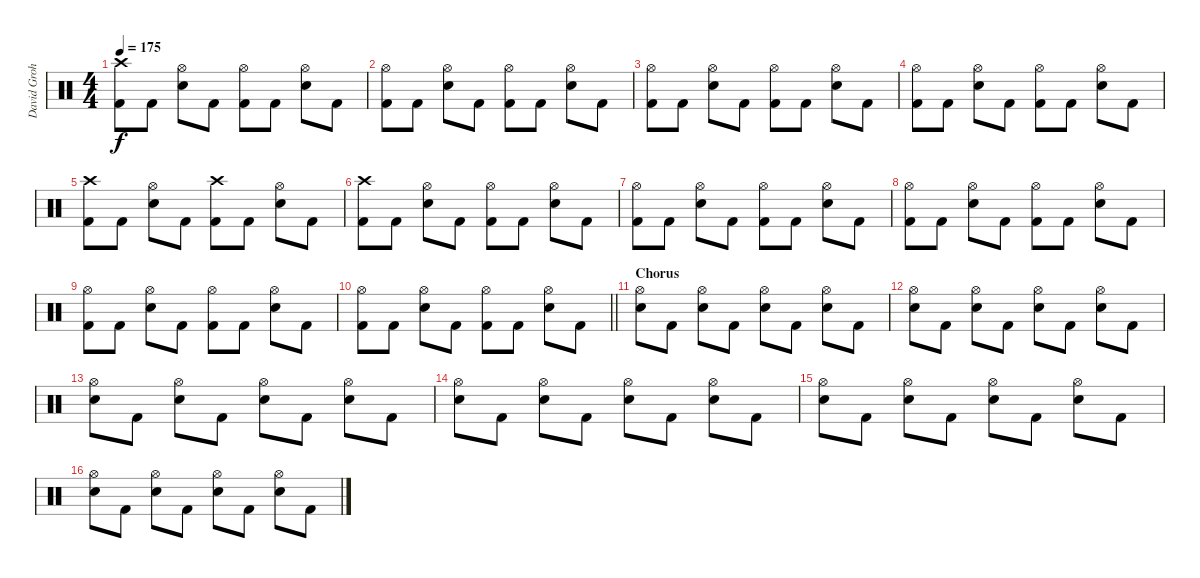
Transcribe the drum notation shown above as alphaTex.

\track ("David Grohl/Alfredo Ortiz" "David Groh") {instrument percussion}
\staff {score}
\articulation defaults
\ts (4 4)
\tempo 175
\clef neutral
\ks c
("Crash high (hit)" "Kick (hit) 2").8{dy f} "Kick (hit) 2".8 ("Hi-Hat (open)" "Snare (hit) 2").8 "Kick (hit) 2".8 ("Hi-Hat (open)" "Kick (hit) 2").8 "Kick (hit) 2".8 ("Hi-Hat (open)" "Snare (hit) 2").8 "Kick (hit) 2".8 |
("Hi-Hat (open)" "Kick (hit) 2").8 "Kick (hit) 2".8 ("Hi-Hat (open)" "Snare (hit) 2").8 "Kick (hit) 2".8 ("Hi-Hat (open)" "Kick (hit) 2").8 "Kick (hit) 2".8 ("Hi-Hat (open)" "Snare (hit) 2").8 "Kick (hit) 2".8 |
("Hi-Hat (open)" "Kick (hit) 2").8 "Kick (hit) 2".8 ("Hi-Hat (open)" "Snare (hit) 2").8 "Kick (hit) 2".8 ("Hi-Hat (open)" "Kick (hit) 2").8 "Kick (hit) 2".8 ("Hi-Hat (open)" "Snare (hit) 2").8 "Kick (hit) 2".8 |
("Hi-Hat (open)" "Kick (hit) 2").8 "Kick (hit) 2".8 ("Hi-Hat (open)" "Snare (hit) 2").8 "Kick (hit) 2".8 ("Hi-Hat (open)" "Kick (hit) 2").8 "Kick (hit) 2".8 ("Hi-Hat (open)" "Snare (hit) 2").8 "Kick (hit) 2".8 |
("Crash high (hit)" "Kick (hit) 2").8 "Kick (hit) 2".8 ("Hi-Hat (open)" "Snare (hit) 2").8 "Kick (hit) 2".8 ("Crash high (hit)" "Kick (hit) 2").8 "Kick (hit) 2".8 ("Hi-Hat (open)" "Snare (hit) 2").8 "Kick (hit) 2".8 |
("Crash high (hit)" "Kick (hit) 2").8 "Kick (hit) 2".8 ("Hi-Hat (open)" "Snare (hit) 2").8 "Kick (hit) 2".8 ("Hi-Hat (open)" "Kick (hit) 2").8 "Kick (hit) 2".8 ("Hi-Hat (open)" "Snare (hit) 2").8 "Kick (hit) 2".8 |
("Hi-Hat (open)" "Kick (hit) 2").8 "Kick (hit) 2".8 ("Hi-Hat (open)" "Snare (hit) 2").8 "Kick (hit) 2".8 ("Hi-Hat (open)" "Kick (hit) 2").8 "Kick (hit) 2".8 ("Hi-Hat (open)" "Snare (hit) 2").8 "Kick (hit) 2".8 |
("Hi-Hat (open)" "Kick (hit) 2").8 "Kick (hit) 2".8 ("Hi-Hat (open)" "Snare (hit) 2").8 "Kick (hit) 2".8 ("Hi-Hat (open)" "Kick (hit) 2").8 "Kick (hit) 2".8 ("Hi-Hat (open)" "Snare (hit) 2").8 "Kick (hit) 2".8 |
("Hi-Hat (open)" "Kick (hit) 2").8 "Kick (hit) 2".8 ("Hi-Hat (open)" "Snare (hit) 2").8 "Kick (hit) 2".8 ("Hi-Hat (open)" "Kick (hit) 2").8 "Kick (hit) 2".8 ("Hi-Hat (open)" "Snare (hit) 2").8 "Kick (hit) 2".8 |
\barLineRight lightlight
("Hi-Hat (open)" "Kick (hit) 2").8 "Kick (hit) 2".8 ("Hi-Hat (open)" "Snare (hit) 2").8 "Kick (hit) 2".8 ("Hi-Hat (open)" "Kick (hit) 2").8 "Kick (hit) 2".8 ("Hi-Hat (open)" "Snare (hit) 2").8 "Kick (hit) 2".8 |
\section ("" "Chorus")
("Hi-Hat (open)" "Snare (hit) 2").8 "Kick (hit) 2".8 ("Hi-Hat (open)" "Snare (hit) 2").8 "Kick (hit) 2".8 ("Hi-Hat (open)" "Snare (hit) 2").8 "Kick (hit) 2".8 ("Hi-Hat (open)" "Snare (hit) 2").8 "Kick (hit) 2".8 |
("Hi-Hat (open)" "Snare (hit) 2").8 "Kick (hit) 2".8 ("Hi-Hat (open)" "Snare (hit) 2").8 "Kick (hit) 2".8 ("Hi-Hat (open)" "Snare (hit) 2").8 "Kick (hit) 2".8 ("Hi-Hat (open)" "Snare (hit) 2").8 "Kick (hit) 2".8 |
("Hi-Hat (open)" "Snare (hit) 2").8 "Kick (hit) 2".8 ("Hi-Hat (open)" "Snare (hit) 2").8 "Kick (hit) 2".8 ("Hi-Hat (open)" "Snare (hit) 2").8 "Kick (hit) 2".8 ("Hi-Hat (open)" "Snare (hit) 2").8 "Kick (hit) 2".8 |
("Hi-Hat (open)" "Snare (hit) 2").8 "Kick (hit) 2".8 ("Hi-Hat (open)" "Snare (hit) 2").8 "Kick (hit) 2".8 ("Hi-Hat (open)" "Snare (hit) 2").8 "Kick (hit) 2".8 ("Hi-Hat (open)" "Snare (hit) 2").8 "Kick (hit) 2".8 |
("Hi-Hat (open)" "Snare (hit) 2").8 "Kick (hit) 2".8 ("Hi-Hat (open)" "Snare (hit) 2").8 "Kick (hit) 2".8 ("Hi-Hat (open)" "Snare (hit) 2").8 "Kick (hit) 2".8 ("Hi-Hat (open)" "Snare (hit) 2").8 "Kick (hit) 2".8 |
("Hi-Hat (open)" "Snare (hit) 2").8 "Kick (hit) 2".8 ("Hi-Hat (open)" "Snare (hit) 2").8 "Kick (hit) 2".8 ("Hi-Hat (open)" "Snare (hit) 2").8 "Kick (hit) 2".8 ("Hi-Hat (open)" "Snare (hit) 2").8 "Kick (hit) 2".8
